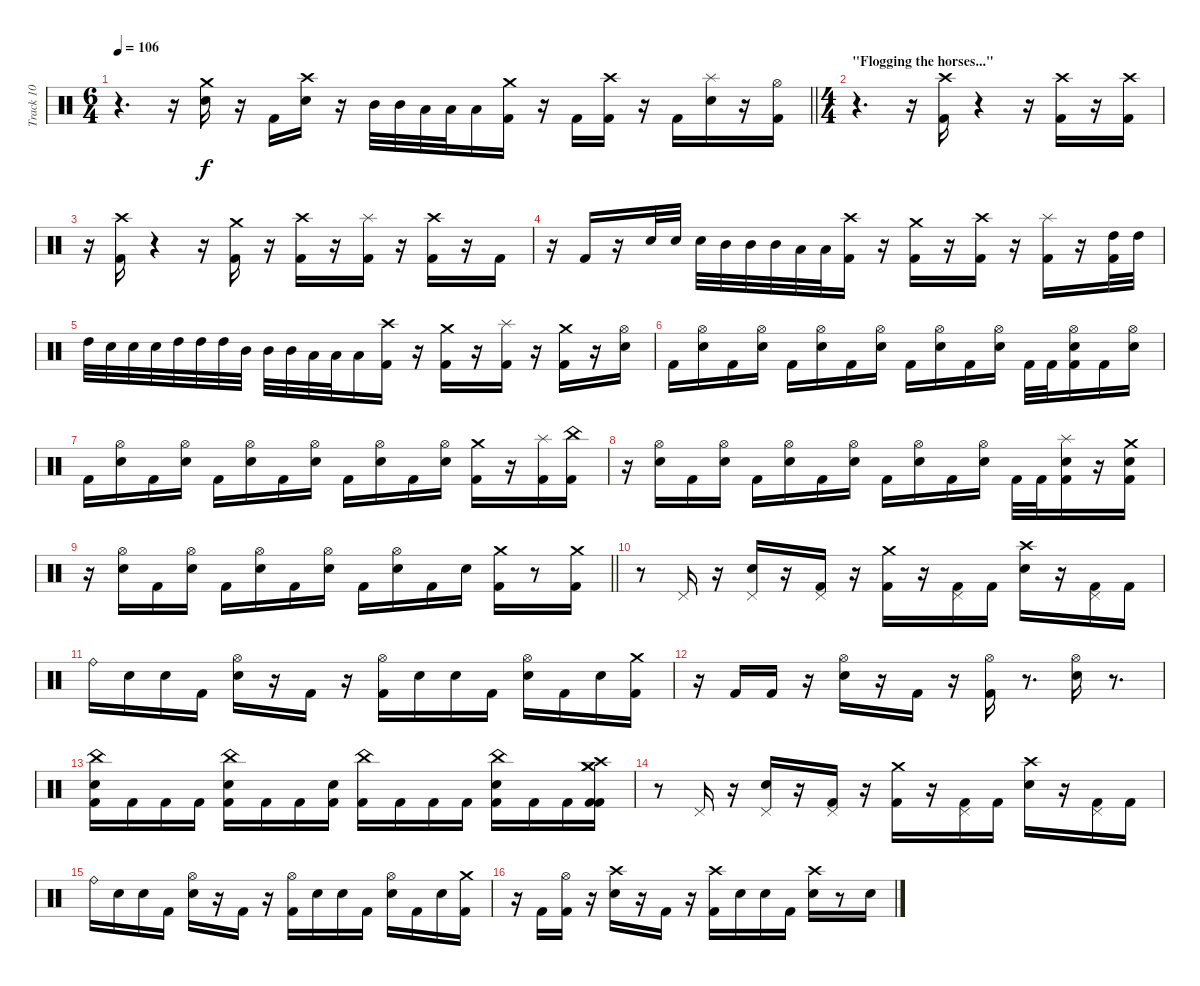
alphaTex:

\track ("Track 10" "Track 10") {instrument percussion}
\staff {score}
\articulation defaults
\ts (6 4)
\tempo 106
\clef neutral
\barLineRight lightlight
\ks c
r.4{d dy f} r.16 ("Snare (hit) 2" "Crash medium (hit)").16 r.16 "Kick (hit) 2".16 ("Snare (hit) 2" "Crash high (hit)").16 r.16 "Mid Tom (hit)".32 "Mid Tom (hit)".32 "Low Floor Tom (hit)".32 "Low Floor Tom (hit)".32 "Low Floor Tom (hit)".16 ("Kick (hit) 2" "Crash medium (hit)").16 r.16 "Kick (hit) 2".16 ("Kick (hit) 2" "Crash high (hit)").16 r.16 "Kick (hit) 2".16 ("Snare (hit) 2" "Splash (hit)").16 r.16 ("Kick (hit) 2" "Hi-Hat (open)").16 |
\ts (4 4)
\section ("" "\"Flogging the horses...\"")
r.4{d} r.16 ("Kick (hit) 2" "Crash high (hit)").16 r.4 r.16 ("Kick (hit) 2" "Crash high (hit)").16 r.16 ("Kick (hit) 2" "Crash high (hit)").16 |
r.16 ("Kick (hit) 2" "Crash high (hit)").16 r.4 r.16 ("Kick (hit) 2" "Crash medium (hit)").16 r.16 ("Kick (hit) 2" "Crash high (hit)").16 r.16 ("Kick (hit) 2" "Splash (hit)").16 r.16 ("Kick (hit) 2" "Crash high (hit)").16 r.16 "Kick (hit) 2".16 |
r.16 "Kick (hit) 2".16 r.16 "Snare (hit) 2".32 "Snare (hit) 2".32 "Snare (hit) 2".32 "Mid Tom (hit)".32 "Mid Tom (hit)".32 "Mid Tom (hit)".32 "Low Floor Tom (hit)".32 "Low Floor Tom (hit)".32 ("Kick (hit) 2" "Crash high (hit)").16 r.16 ("Kick (hit) 2" "Crash medium (hit)").16 r.16 ("Kick (hit) 2" "Crash high (hit)").16 r.16 ("Kick (hit) 2" "Splash (hit)").16 r.16 ("Kick (hit) 2" "High Tom (hit)").32 "High Tom (hit)".32 |
"High Tom (hit)".32 "Snare (hit) 2".32 "Snare (hit) 2".32 "Snare (hit) 2".32 "High Tom (hit)".32 "High Tom (hit)".32 "High Tom (hit)".32 "Mid Tom (hit)".32 "Mid Tom (hit)".32 "Mid Tom (hit)".32 "Low Floor Tom (hit)".32 "Low Floor Tom (hit)".32 "Low Floor Tom (hit)".16 ("Kick (hit) 2" "Crash high (hit)").16 r.16 ("Kick (hit) 2" "Crash medium (hit)").16 r.16 ("Kick (hit) 2" "Splash (hit)").16 r.16 ("Kick (hit) 2" "Crash medium (hit)").16 r.16 ("Snare (hit) 2" "Hi-Hat (open)").16 |
"Kick (hit) 2".16 ("Snare (hit) 2" "Hi-Hat (open)").16 "Kick (hit) 2".16 ("Snare (hit) 2" "Hi-Hat (open)").16 "Kick (hit) 2".16 ("Snare (hit) 2" "Hi-Hat (open)").16 "Kick (hit) 2".16 ("Snare (hit) 2" "Hi-Hat (open)").16 "Kick (hit) 2".16 ("Snare (hit) 2" "Hi-Hat (open)").16 "Kick (hit) 2".16 ("Snare (hit) 2" "Hi-Hat (open)").16 "Kick (hit) 2".32 "Kick (hit) 2".32 ("Kick (hit) 2" "Snare (hit) 2" "Hi-Hat (open)").16 "Kick (hit) 2".16 ("Snare (hit) 2" "Hi-Hat (open)").16 |
"Kick (hit) 2".16 ("Snare (hit) 2" "Hi-Hat (open)").16 "Kick (hit) 2".16 ("Snare (hit) 2" "Hi-Hat (open)").16 "Kick (hit) 2".16 ("Snare (hit) 2" "Hi-Hat (open)").16 "Kick (hit) 2".16 ("Snare (hit) 2" "Hi-Hat (open)").16 "Kick (hit) 2".16 ("Snare (hit) 2" "Hi-Hat (open)").16 "Kick (hit) 2".16 ("Snare (hit) 2" "Hi-Hat (open)").16 ("Kick (hit) 2" "Crash medium (hit)").16 r.16 ("Kick (hit) 2" "Splash (hit)").16 ("Kick (hit) 2" "China (hit)").16 |
r.16 ("Snare (hit) 2" "Hi-Hat (open)").16 "Kick (hit) 2".16 ("Snare (hit) 2" "Hi-Hat (open)").16 "Kick (hit) 2".16 ("Snare (hit) 2" "Hi-Hat (open)").16 "Kick (hit) 2".16 ("Snare (hit) 2" "Hi-Hat (open)").16 "Kick (hit) 2".16 ("Snare (hit) 2" "Hi-Hat (open)").16 "Kick (hit) 2".16 ("Snare (hit) 2" "Hi-Hat (open)").16 "Kick (hit) 2".32 "Kick (hit) 2".32 ("Kick (hit) 2" "Snare (hit) 2" "Splash (hit)").16 r.16 ("Kick (hit) 2" "Snare (hit) 2" "Crash medium (hit)").16 |
\barLineRight lightlight
r.16 ("Snare (hit) 2" "Hi-Hat (open)").16 "Kick (hit) 2".16 ("Snare (hit) 2" "Hi-Hat (open)").16 "Kick (hit) 2".16 ("Snare (hit) 2" "Hi-Hat (open)").16 "Kick (hit) 2".16 ("Snare (hit) 2" "Hi-Hat (open)").16 "Kick (hit) 2".16 ("Snare (hit) 2" "Hi-Hat (open)").16 "Kick (hit) 2".16 "Snare (hit) 2".16 ("Kick (hit) 2" "Crash medium (hit)").16 r.8 ("Kick (hit) 2" "Crash medium (hit)").16 |
r.8 "Pedal Hi-Hat (hit)".16 r.16 ("Snare (hit) 2" "Pedal Hi-Hat (hit)").16 r.16 ("Kick (hit) 2" "Pedal Hi-Hat (hit)").16 r.16 ("Kick (hit) 2" "Crash medium (hit)").16 r.16 ("Kick (hit) 2" "Pedal Hi-Hat (hit)").16 "Kick (hit) 2".16 ("Snare (hit) 2" "Crash high (hit)").16 r.16 ("Kick (hit) 2" "Pedal Hi-Hat (hit)").16 "Kick (hit) 2".16 |
"Ride (bell)".16 "Snare (hit) 2".16 "Snare (hit) 2".16 "Kick (hit) 2".16 ("Snare (hit) 2" "Hi-Hat (open)").16 r.16 "Kick (hit) 2".16 r.16 ("Kick (hit) 2" "Hi-Hat (open)").16 "Snare (hit) 2".16 "Snare (hit) 2".16 "Kick (hit) 2".16 ("Snare (hit) 2" "Hi-Hat (open)").16 "Kick (hit) 2".16 "Snare (hit) 2".16 ("Kick (hit) 2" "Crash medium (hit)").16 |
r.16 "Kick (hit) 2".16 "Kick (hit) 2".16 r.16 ("Snare (hit) 2" "Hi-Hat (open)").16 r.16 "Kick (hit) 2".16 r.16 ("Kick (hit) 2" "Hi-Hat (open)").16 r.8{d} ("Snare (hit) 2" "Hi-Hat (open)").16 r.8{d} |
("Kick (hit) 2" "Snare (hit) 2" "China (hit)").16 "Kick (hit) 2".16 "Kick (hit) 2".16 "Kick (hit) 2".16 ("Kick (hit) 2" "Snare (hit) 2" "China (hit)").16 "Kick (hit) 2".16 "Kick (hit) 2".16 ("Kick (hit) 2" "Snare (hit) 2").16 ("Kick (hit) 2" "China (hit)").16 "Kick (hit) 2".16 "Kick (hit) 2".16 "Kick (hit) 2".16 ("Kick (hit) 2" "Snare (hit) 2" "China (hit)").16 "Kick (hit) 2".16 "Kick (hit) 2".16 ("Kick (hit) 2" "Kick (hit) 2" "Crash high (hit)" "Crash medium (hit)" "Crash medium (hit)").16 |
r.8 "Pedal Hi-Hat (hit)".16 r.16 ("Snare (hit) 2" "Pedal Hi-Hat (hit)").16 r.16 ("Kick (hit) 2" "Pedal Hi-Hat (hit)").16 r.16 ("Kick (hit) 2" "Crash medium (hit)").16 r.16 ("Kick (hit) 2" "Pedal Hi-Hat (hit)").16 "Kick (hit) 2".16 ("Snare (hit) 2" "Crash high (hit)").16 r.16 ("Kick (hit) 2" "Pedal Hi-Hat (hit)").16 "Kick (hit) 2".16 |
"Ride (bell)".16 "Snare (hit) 2".16 "Snare (hit) 2".16 "Kick (hit) 2".16 ("Snare (hit) 2" "Hi-Hat (open)").16 r.16 "Kick (hit) 2".16 r.16 ("Kick (hit) 2" "Hi-Hat (open)").16 "Snare (hit) 2".16 "Snare (hit) 2".16 "Kick (hit) 2".16 ("Snare (hit) 2" "Hi-Hat (open)").16 "Kick (hit) 2".16 "Snare (hit) 2".16 ("Kick (hit) 2" "Crash medium (hit)").16 |
r.16 "Kick (hit) 2".16 ("Kick (hit) 2" "Hi-Hat (open)").16 r.16 ("Snare (hit) 2" "Crash high (hit)").16 r.16 "Kick (hit) 2".16 r.16 ("Kick (hit) 2" "Crash high (hit)").16 "Snare (hit) 2".16 "Snare (hit) 2".16 "Kick (hit) 2".16 ("Snare (hit) 2" "Crash high (hit)").16 r.8 "Snare (hit) 2".16
